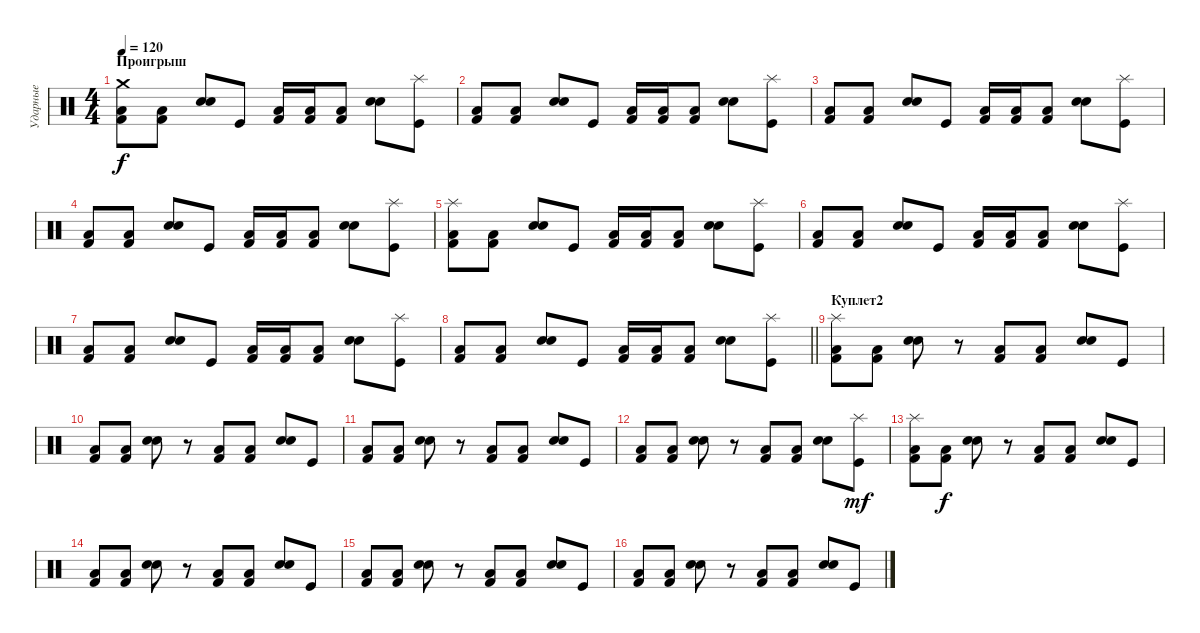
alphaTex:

\track ("Ударные" "Ударные") {instrument percussion}
\staff {score}
\articulation defaults
\ts (4 4)
\section ("" "Проигрыш")
\tempo 120
\clef neutral
\ks c
("Crash medium (hit)" "Low Floor Tom (hit)" "Kick (hit) 2").8{dy f} ("Low Floor Tom (hit)" "Kick (hit) 2").8 ("Electric Snare (hit)" "Snare (hit) 2").8 "Kick (hit)".8 ("Low Floor Tom (hit)" "Kick (hit) 2").16 ("Low Floor Tom (hit)" "Kick (hit) 2").16 ("Low Floor Tom (hit)" "Kick (hit) 2").8 ("Electric Snare (hit)" "Snare (hit) 2").8 ("Splash (hit)" "Kick (hit)").8 |
("Low Floor Tom (hit)" "Kick (hit) 2").8 ("Low Floor Tom (hit)" "Kick (hit) 2").8 ("Electric Snare (hit)" "Snare (hit) 2").8 "Kick (hit)".8 ("Low Floor Tom (hit)" "Kick (hit) 2").16 ("Low Floor Tom (hit)" "Kick (hit) 2").16 ("Low Floor Tom (hit)" "Kick (hit) 2").8 ("Electric Snare (hit)" "Snare (hit) 2").8 ("Splash (hit)" "Kick (hit)").8 |
("Low Floor Tom (hit)" "Kick (hit) 2").8 ("Low Floor Tom (hit)" "Kick (hit) 2").8 ("Electric Snare (hit)" "Snare (hit) 2").8 "Kick (hit)".8 ("Low Floor Tom (hit)" "Kick (hit) 2").16 ("Low Floor Tom (hit)" "Kick (hit) 2").16 ("Low Floor Tom (hit)" "Kick (hit) 2").8 ("Electric Snare (hit)" "Snare (hit) 2").8 ("Splash (hit)" "Kick (hit)").8 |
("Low Floor Tom (hit)" "Kick (hit) 2").8 ("Low Floor Tom (hit)" "Kick (hit) 2").8 ("Electric Snare (hit)" "Snare (hit) 2").8 "Kick (hit)".8 ("Low Floor Tom (hit)" "Kick (hit) 2").16 ("Low Floor Tom (hit)" "Kick (hit) 2").16 ("Low Floor Tom (hit)" "Kick (hit) 2").8 ("Electric Snare (hit)" "Snare (hit) 2").8 ("Splash (hit)" "Kick (hit)").8 |
("Splash (hit)" "Low Floor Tom (hit)" "Kick (hit) 2").8 ("Low Floor Tom (hit)" "Kick (hit) 2").8 ("Electric Snare (hit)" "Snare (hit) 2").8 "Kick (hit)".8 ("Low Floor Tom (hit)" "Kick (hit) 2").16 ("Low Floor Tom (hit)" "Kick (hit) 2").16 ("Low Floor Tom (hit)" "Kick (hit) 2").8 ("Electric Snare (hit)" "Snare (hit) 2").8 ("Splash (hit)" "Kick (hit)").8 |
("Low Floor Tom (hit)" "Kick (hit) 2").8 ("Low Floor Tom (hit)" "Kick (hit) 2").8 ("Electric Snare (hit)" "Snare (hit) 2").8 "Kick (hit)".8 ("Low Floor Tom (hit)" "Kick (hit) 2").16 ("Low Floor Tom (hit)" "Kick (hit) 2").16 ("Low Floor Tom (hit)" "Kick (hit) 2").8 ("Electric Snare (hit)" "Snare (hit) 2").8 ("Splash (hit)" "Kick (hit)").8 |
("Low Floor Tom (hit)" "Kick (hit) 2").8 ("Low Floor Tom (hit)" "Kick (hit) 2").8 ("Electric Snare (hit)" "Snare (hit) 2").8 "Kick (hit)".8 ("Low Floor Tom (hit)" "Kick (hit) 2").16 ("Low Floor Tom (hit)" "Kick (hit) 2").16 ("Low Floor Tom (hit)" "Kick (hit) 2").8 ("Electric Snare (hit)" "Snare (hit) 2").8 ("Splash (hit)" "Kick (hit)").8 |
\barLineRight lightlight
("Low Floor Tom (hit)" "Kick (hit) 2").8 ("Low Floor Tom (hit)" "Kick (hit) 2").8 ("Electric Snare (hit)" "Snare (hit) 2").8 "Kick (hit)".8 ("Low Floor Tom (hit)" "Kick (hit) 2").16 ("Low Floor Tom (hit)" "Kick (hit) 2").16 ("Low Floor Tom (hit)" "Kick (hit) 2").8 ("Electric Snare (hit)" "Snare (hit) 2").8 ("Splash (hit)" "Kick (hit)").8 |
\section ("" "Куплет2")
("Splash (hit)" "Low Floor Tom (hit)" "Kick (hit) 2").8 ("Low Floor Tom (hit)" "Kick (hit) 2").8 ("Electric Snare (hit)" "Snare (hit) 2").8 r.8 ("Low Floor Tom (hit)" "Kick (hit) 2").8 ("Low Floor Tom (hit)" "Kick (hit) 2").8 ("Electric Snare (hit)" "Snare (hit) 2").8 "Kick (hit)".8 |
("Low Floor Tom (hit)" "Kick (hit) 2").8 ("Low Floor Tom (hit)" "Kick (hit) 2").8 ("Electric Snare (hit)" "Snare (hit) 2").8 r.8 ("Low Floor Tom (hit)" "Kick (hit) 2").8 ("Low Floor Tom (hit)" "Kick (hit) 2").8 ("Electric Snare (hit)" "Snare (hit) 2").8 "Kick (hit)".8 |
("Low Floor Tom (hit)" "Kick (hit) 2").8 ("Low Floor Tom (hit)" "Kick (hit) 2").8 ("Electric Snare (hit)" "Snare (hit) 2").8 r.8 ("Low Floor Tom (hit)" "Kick (hit) 2").8 ("Low Floor Tom (hit)" "Kick (hit) 2").8 ("Electric Snare (hit)" "Snare (hit) 2").8 "Kick (hit)".8 |
("Low Floor Tom (hit)" "Kick (hit) 2").8 ("Low Floor Tom (hit)" "Kick (hit) 2").8 ("Electric Snare (hit)" "Snare (hit) 2").8 r.8 ("Low Floor Tom (hit)" "Kick (hit) 2").8 ("Low Floor Tom (hit)" "Kick (hit) 2").8 ("Electric Snare (hit)" "Snare (hit) 2").8 ("Splash (hit)" "Kick (hit)").8{dy mf} |
("Splash (hit)" "Low Floor Tom (hit)" "Kick (hit) 2").8 ("Low Floor Tom (hit)" "Kick (hit) 2").8{dy f} ("Electric Snare (hit)" "Snare (hit) 2").8 r.8 ("Low Floor Tom (hit)" "Kick (hit) 2").8 ("Low Floor Tom (hit)" "Kick (hit) 2").8 ("Electric Snare (hit)" "Snare (hit) 2").8 "Kick (hit)".8 |
("Low Floor Tom (hit)" "Kick (hit) 2").8 ("Low Floor Tom (hit)" "Kick (hit) 2").8 ("Electric Snare (hit)" "Snare (hit) 2").8 r.8 ("Low Floor Tom (hit)" "Kick (hit) 2").8 ("Low Floor Tom (hit)" "Kick (hit) 2").8 ("Electric Snare (hit)" "Snare (hit) 2").8 "Kick (hit)".8 |
("Low Floor Tom (hit)" "Kick (hit) 2").8 ("Low Floor Tom (hit)" "Kick (hit) 2").8 ("Electric Snare (hit)" "Snare (hit) 2").8 r.8 ("Low Floor Tom (hit)" "Kick (hit) 2").8 ("Low Floor Tom (hit)" "Kick (hit) 2").8 ("Electric Snare (hit)" "Snare (hit) 2").8 "Kick (hit)".8 |
("Low Floor Tom (hit)" "Kick (hit) 2").8 ("Low Floor Tom (hit)" "Kick (hit) 2").8 ("Electric Snare (hit)" "Snare (hit) 2").8 r.8 ("Low Floor Tom (hit)" "Kick (hit) 2").8 ("Low Floor Tom (hit)" "Kick (hit) 2").8 ("Electric Snare (hit)" "Snare (hit) 2").8 "Kick (hit)".8
